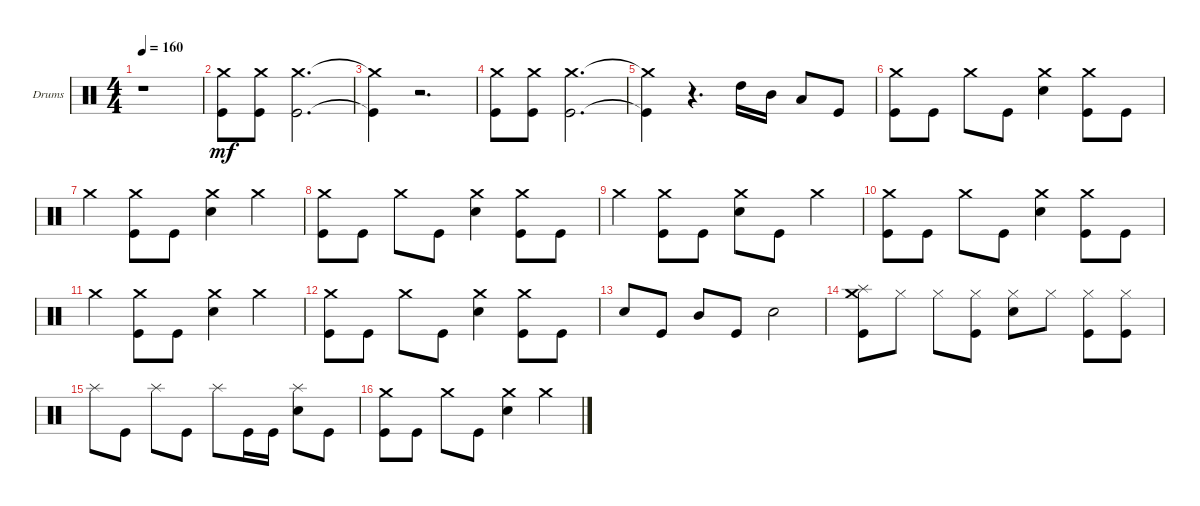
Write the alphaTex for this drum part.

\bracketExtendMode groupsimilarinstruments
\firstSystemTrackNameOrientation horizontal
\otherSystemsTrackNameOrientation horizontal
\track ("Drums" "Drums") {instrument percussion}
\staff {score}
\articulation defaults
\ts (4 4)
\tempo 160
\clef neutral
\ks c
r.1{dy mf} |
("Kick (hit)" "Crash medium (hit)").8 ("Kick (hit)" "Crash medium (hit)").8 ("Kick (hit)" "Crash medium (hit)").2{d} |
("Kick (hit)"{t} "Crash medium (hit)"{t}).4 r.2{d} |
("Kick (hit)" "Crash medium (hit)").8 ("Kick (hit)" "Crash medium (hit)").8 ("Kick (hit)" "Crash medium (hit)").2{d} |
("Kick (hit)"{t} "Crash medium (hit)"{t}).4 r.4{d} "High Tom (hit)".16 "Mid Tom (hit)".16 "Low Tom (hit)".8 "Kick (hit)".8 |
("Kick (hit)" "Crash medium (hit)").8 "Kick (hit)".8 "Crash medium (hit)".8 "Kick (hit)".8 ("Snare (hit) 2" "Crash medium (hit)").4 ("Kick (hit)" "Crash medium (hit)").8 "Kick (hit)".8 |
"Crash medium (hit)".4 ("Kick (hit)" "Crash medium (hit)").8 "Kick (hit)".8 ("Snare (hit) 2" "Crash medium (hit)").4 "Crash medium (hit)".4 |
("Kick (hit)" "Crash medium (hit)").8 "Kick (hit)".8 "Crash medium (hit)".8 "Kick (hit)".8 ("Snare (hit) 2" "Crash medium (hit)").4 ("Kick (hit)" "Crash medium (hit)").8 "Kick (hit)".8 |
"Crash medium (hit)".4 ("Kick (hit)" "Crash medium (hit)").8 "Kick (hit)".8 ("Snare (hit) 2" "Crash medium (hit)").8 "Kick (hit)".8 "Crash medium (hit)".4 |
("Kick (hit)" "Crash medium (hit)").8 "Kick (hit)".8 "Crash medium (hit)".8 "Kick (hit)".8 ("Snare (hit) 2" "Crash medium (hit)").4 ("Kick (hit)" "Crash medium (hit)").8 "Kick (hit)".8 |
"Crash medium (hit)".4 ("Kick (hit)" "Crash medium (hit)").8 "Kick (hit)".8 ("Snare (hit) 2" "Crash medium (hit)").4 "Crash medium (hit)".4 |
("Kick (hit)" "Crash medium (hit)").8 "Kick (hit)".8 "Crash medium (hit)".8 "Kick (hit)".8 ("Snare (hit) 2" "Crash medium (hit)").4 ("Kick (hit)" "Crash medium (hit)").8 "Kick (hit)".8 |
"Snare (hit) 2".8 "Kick (hit)".8 "Mid Tom (hit)".8 "Kick (hit)".8 "Snare (hit) 2".2 |
("Kick (hit)" "Splash (hit)" "Crash medium (hit)").8 "Hi-Hat (closed)".8 "Hi-Hat (closed)".8 ("Kick (hit)" "Hi-Hat (closed)").8 ("Snare (hit) 2" "Hi-Hat (closed)").8 "Hi-Hat (closed)".8 ("Kick (hit)" "Hi-Hat (closed)").8 ("Kick (hit)" "Hi-Hat (closed)").8 |
"Splash (hit)".8 "Kick (hit)".8 "Splash (hit)".8 "Kick (hit)".8 "Splash (hit)".8 "Kick (hit)".16 "Kick (hit)".16 ("Snare (hit) 2" "Splash (hit)").8 "Kick (hit)".8 |
("Kick (hit)" "Crash medium (hit)").8 "Kick (hit)".8 "Crash medium (hit)".8 "Kick (hit)".8 ("Snare (hit) 2" "Crash medium (hit)").4 "Crash medium (hit)".4
